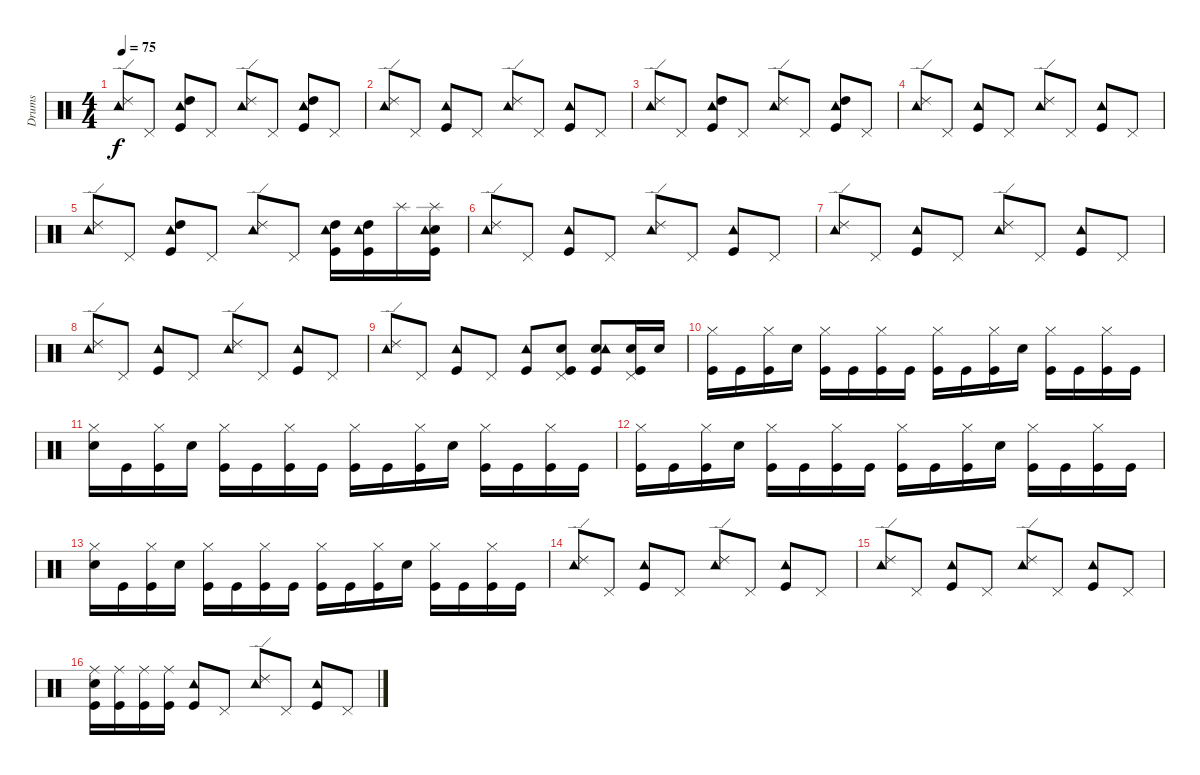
\track ("Drums" "Drums") {instrument percussion}
\staff {score}
\articulation defaults
\ts (4 4)
\tempo 75
\clef neutral
\ks c
("Ride (edge) 2" "Tambourine (hit)").8{dy f} "Pedal Hi-Hat (hit)".8 ("High Tom (hit)" "Kick (hit)" "Tambourine (hit)").8 "Pedal Hi-Hat (hit)".8 ("Ride (edge) 2" "Tambourine (hit)").8 "Pedal Hi-Hat (hit)".8 ("High Tom (hit)" "Kick (hit)" "Tambourine (hit)").8 "Pedal Hi-Hat (hit)".8 |
("Ride (edge) 2" "Tambourine (hit)").8 "Pedal Hi-Hat (hit)".8 ("Kick (hit)" "Tambourine (hit)").8 "Pedal Hi-Hat (hit)".8 ("Ride (edge) 2" "Tambourine (hit)").8 "Pedal Hi-Hat (hit)".8 ("Kick (hit)" "Tambourine (hit)").8 "Pedal Hi-Hat (hit)".8 |
("Ride (edge) 2" "Tambourine (hit)").8 "Pedal Hi-Hat (hit)".8 ("High Tom (hit)" "Kick (hit)" "Tambourine (hit)").8 "Pedal Hi-Hat (hit)".8 ("Ride (edge) 2" "Tambourine (hit)").8 "Pedal Hi-Hat (hit)".8 ("High Tom (hit)" "Kick (hit)" "Tambourine (hit)").8 "Pedal Hi-Hat (hit)".8 |
("Ride (edge) 2" "Tambourine (hit)").8 "Pedal Hi-Hat (hit)".8 ("Kick (hit)" "Tambourine (hit)").8 "Pedal Hi-Hat (hit)".8 ("Ride (edge) 2" "Tambourine (hit)").8 "Pedal Hi-Hat (hit)".8 ("Kick (hit)" "Tambourine (hit)").8 "Pedal Hi-Hat (hit)".8 |
("Ride (edge) 2" "Tambourine (hit)").8 "Pedal Hi-Hat (hit)".8 ("High Tom (hit)" "Kick (hit)" "Tambourine (hit)").8 "Pedal Hi-Hat (hit)".8 ("Ride (edge) 2" "Tambourine (hit)").8 "Pedal Hi-Hat (hit)".8 ("High Tom (hit)" "Kick (hit)" "Tambourine (hit)").16 ("High Tom (hit)" "Kick (hit)" "Tambourine (hit)").16 "Splash (hit)".16 ("Splash (hit)" "Snare (hit) 2" "Kick (hit)" "Tambourine (hit)").16 |
("Ride (edge) 2" "Tambourine (hit)").8 "Pedal Hi-Hat (hit)".8 ("Kick (hit)" "Tambourine (hit)").8 "Pedal Hi-Hat (hit)".8 ("Ride (edge) 2" "Tambourine (hit)").8 "Pedal Hi-Hat (hit)".8 ("Kick (hit)" "Tambourine (hit)").8 "Pedal Hi-Hat (hit)".8 |
("Ride (edge) 2" "Tambourine (hit)").8 "Pedal Hi-Hat (hit)".8 ("Kick (hit)" "Tambourine (hit)").8 "Pedal Hi-Hat (hit)".8 ("Ride (edge) 2" "Tambourine (hit)").8 "Pedal Hi-Hat (hit)".8 ("Kick (hit)" "Tambourine (hit)").8 "Pedal Hi-Hat (hit)".8 |
("Ride (edge) 2" "Tambourine (hit)").8 "Pedal Hi-Hat (hit)".8 ("Kick (hit)" "Tambourine (hit)").8 "Pedal Hi-Hat (hit)".8 ("Ride (edge) 2" "Tambourine (hit)").8 "Pedal Hi-Hat (hit)".8 ("Kick (hit)" "Tambourine (hit)").8 "Pedal Hi-Hat (hit)".8 |
("Ride (edge) 2" "Tambourine (hit)").8 "Pedal Hi-Hat (hit)".8 ("Kick (hit)" "Tambourine (hit)").8 "Pedal Hi-Hat (hit)".8 ("Kick (hit)" "Tambourine (hit)").8 ("Snare (hit) 2" "Kick (hit)" "Pedal Hi-Hat (hit)").8 ("Snare (hit) 2" "Kick (hit)" "Tambourine (hit)").8 ("Snare (hit) 2" "Kick (hit)" "Pedal Hi-Hat (hit)").16 "Snare (hit) 2".16 |
("Kick (hit)" "Hi-Hat (closed)").16 "Kick (hit)".16 ("Kick (hit)" "Hi-Hat (closed)").16 "Snare (hit) 2".16 ("Kick (hit)" "Hi-Hat (closed)").16 "Kick (hit)".16 ("Kick (hit)" "Hi-Hat (closed)").16 "Kick (hit)".16 ("Kick (hit)" "Hi-Hat (closed)").16 "Kick (hit)".16 ("Kick (hit)" "Hi-Hat (closed)").16 "Snare (hit) 2".16 ("Kick (hit)" "Hi-Hat (closed)").16 "Kick (hit)".16 ("Kick (hit)" "Hi-Hat (closed)").16 "Kick (hit)".16 |
("Snare (hit) 2" "Hi-Hat (closed)").16 "Kick (hit)".16 ("Kick (hit)" "Hi-Hat (closed)").16 "Snare (hit) 2".16 ("Kick (hit)" "Hi-Hat (closed)").16 "Kick (hit)".16 ("Kick (hit)" "Hi-Hat (closed)").16 "Kick (hit)".16 ("Kick (hit)" "Hi-Hat (closed)").16 "Kick (hit)".16 ("Kick (hit)" "Hi-Hat (closed)").16 "Snare (hit) 2".16 ("Kick (hit)" "Hi-Hat (closed)").16 "Kick (hit)".16 ("Kick (hit)" "Hi-Hat (closed)").16 "Kick (hit)".16 |
("Kick (hit)" "Hi-Hat (closed)").16 "Kick (hit)".16 ("Kick (hit)" "Hi-Hat (closed)").16 "Snare (hit) 2".16 ("Kick (hit)" "Hi-Hat (closed)").16 "Kick (hit)".16 ("Kick (hit)" "Hi-Hat (closed)").16 "Kick (hit)".16 ("Kick (hit)" "Hi-Hat (closed)").16 "Kick (hit)".16 ("Kick (hit)" "Hi-Hat (closed)").16 "Snare (hit) 2".16 ("Kick (hit)" "Hi-Hat (closed)").16 "Kick (hit)".16 ("Kick (hit)" "Hi-Hat (closed)").16 "Kick (hit)".16 |
("Snare (hit) 2" "Hi-Hat (closed)").16 "Kick (hit)".16 ("Kick (hit)" "Hi-Hat (closed)").16 "Snare (hit) 2".16 ("Kick (hit)" "Hi-Hat (closed)").16 "Kick (hit)".16 ("Kick (hit)" "Hi-Hat (closed)").16 "Kick (hit)".16 ("Kick (hit)" "Hi-Hat (closed)").16 "Kick (hit)".16 ("Kick (hit)" "Hi-Hat (closed)").16 "Snare (hit) 2".16 ("Kick (hit)" "Hi-Hat (closed)").16 "Kick (hit)".16 ("Kick (hit)" "Hi-Hat (closed)").16 "Kick (hit)".16 |
("Ride (edge) 2" "Tambourine (hit)").8 "Pedal Hi-Hat (hit)".8 ("Kick (hit)" "Tambourine (hit)").8 "Pedal Hi-Hat (hit)".8 ("Ride (edge) 2" "Tambourine (hit)").8 "Pedal Hi-Hat (hit)".8 ("Kick (hit)" "Tambourine (hit)").8 "Pedal Hi-Hat (hit)".8 |
("Ride (edge) 2" "Tambourine (hit)").8 "Pedal Hi-Hat (hit)".8 ("Kick (hit)" "Tambourine (hit)").8 "Pedal Hi-Hat (hit)".8 ("Ride (edge) 2" "Tambourine (hit)").8 "Pedal Hi-Hat (hit)".8 ("Kick (hit)" "Tambourine (hit)").8 "Pedal Hi-Hat (hit)".8 |
("Snare (hit) 2" "Kick (hit)" "Ride (middle)").16 ("Kick (hit)" "Ride (middle)").16 ("Kick (hit)" "Ride (middle)").16 ("Kick (hit)" "Ride (middle)").16 ("Kick (hit)" "Tambourine (hit)").8 "Pedal Hi-Hat (hit)".8 ("Ride (edge) 2" "Tambourine (hit)").8 "Pedal Hi-Hat (hit)".8 ("Kick (hit)" "Tambourine (hit)").8 "Pedal Hi-Hat (hit)".8
